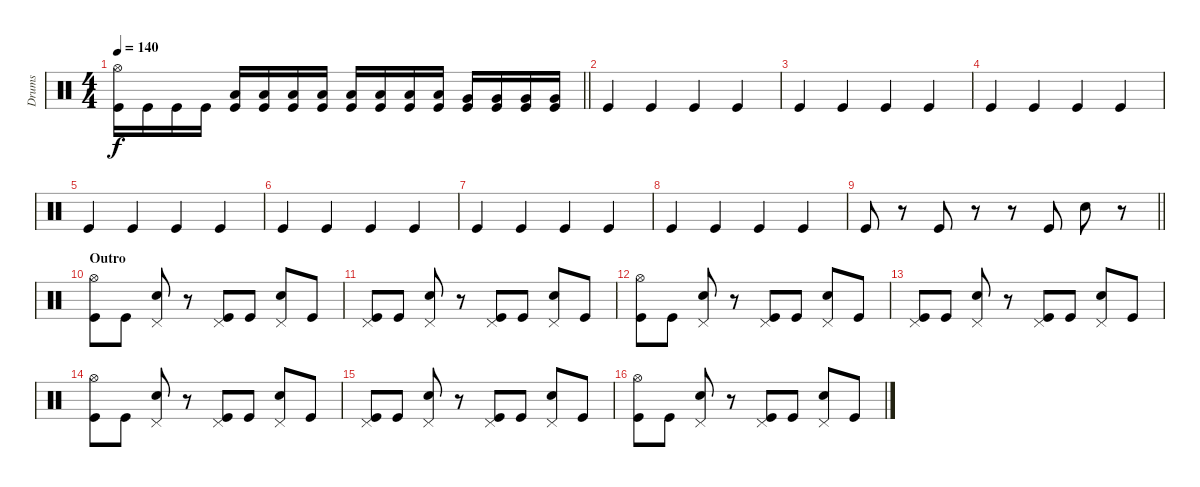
\track ("Drums" "Drums") {instrument percussion}
\staff {score}
\articulation defaults
\ts (4 4)
\tempo 140
\clef neutral
\barLineRight lightlight
\ks c
("Hi-Hat (open)" "Kick (hit)").16{dy f} "Kick (hit)".16 "Kick (hit)".16 "Kick (hit)".16 ("Low Tom (hit)" "Kick (hit)").16 ("Low Tom (hit)" "Kick (hit)").16 ("Low Tom (hit)" "Kick (hit)").16 ("Low Tom (hit)" "Kick (hit)").16 ("Low Floor Tom (hit)" "Kick (hit)").16 ("Low Floor Tom (hit)" "Kick (hit)").16 ("Low Floor Tom (hit)" "Kick (hit)").16 ("Low Floor Tom (hit)" "Kick (hit)").16 ("Very Low Tom (hit)" "Kick (hit)").16 ("Very Low Tom (hit)" "Kick (hit)").16 ("Very Low Tom (hit)" "Kick (hit)").16 ("Very Low Tom (hit)" "Kick (hit)").16 |
\section ("" "")
"Kick (hit)".4 "Kick (hit)".4 "Kick (hit)".4 "Kick (hit)".4 |
"Kick (hit)".4 "Kick (hit)".4 "Kick (hit)".4 "Kick (hit)".4 |
"Kick (hit)".4 "Kick (hit)".4 "Kick (hit)".4 "Kick (hit)".4 |
"Kick (hit)".4 "Kick (hit)".4 "Kick (hit)".4 "Kick (hit)".4 |
"Kick (hit)".4 "Kick (hit)".4 "Kick (hit)".4 "Kick (hit)".4 |
"Kick (hit)".4 "Kick (hit)".4 "Kick (hit)".4 "Kick (hit)".4 |
"Kick (hit)".4 "Kick (hit)".4 "Kick (hit)".4 "Kick (hit)".4 |
\barLineRight lightlight "Kick (hit)".8
r.8 "Kick (hit)".8 r.8 r.8 "Kick (hit)".8 "Electric Snare (hit)".8 r.8 |
\section ("" "Outro")
("Hi-Hat (open)" "Kick (hit)").8 "Kick (hit)".8 ("Pedal Hi-Hat (hit)" "Electric Snare (hit)").8 r.8 ("Pedal Hi-Hat (hit)" "Kick (hit)").8 "Kick (hit)".8 ("Pedal Hi-Hat (hit)" "Electric Snare (hit)").8 "Kick (hit)".8 |
("Pedal Hi-Hat (hit)" "Kick (hit)").8 "Kick (hit)".8 ("Pedal Hi-Hat (hit)" "Electric Snare (hit)").8 r.8 ("Pedal Hi-Hat (hit)" "Kick (hit)").8 "Kick (hit)".8 ("Pedal Hi-Hat (hit)" "Electric Snare (hit)").8 "Kick (hit)".8 |
("Hi-Hat (open)" "Kick (hit)").8 "Kick (hit)".8 ("Pedal Hi-Hat (hit)" "Electric Snare (hit)").8 r.8 ("Pedal Hi-Hat (hit)" "Kick (hit)").8 "Kick (hit)".8 ("Pedal Hi-Hat (hit)" "Electric Snare (hit)").8 "Kick (hit)".8 |
("Pedal Hi-Hat (hit)" "Kick (hit)").8 "Kick (hit)".8 ("Pedal Hi-Hat (hit)" "Electric Snare (hit)").8 r.8 ("Pedal Hi-Hat (hit)" "Kick (hit)").8 "Kick (hit)".8 ("Pedal Hi-Hat (hit)" "Electric Snare (hit)").8 "Kick (hit)".8 |
("Hi-Hat (open)" "Kick (hit)").8 "Kick (hit)".8 ("Pedal Hi-Hat (hit)" "Electric Snare (hit)").8 r.8 ("Pedal Hi-Hat (hit)" "Kick (hit)").8 "Kick (hit)".8 ("Pedal Hi-Hat (hit)" "Electric Snare (hit)").8 "Kick (hit)".8 |
("Pedal Hi-Hat (hit)" "Kick (hit)").8 "Kick (hit)".8 ("Pedal Hi-Hat (hit)" "Electric Snare (hit)").8 r.8 ("Pedal Hi-Hat (hit)" "Kick (hit)").8 "Kick (hit)".8 ("Pedal Hi-Hat (hit)" "Electric Snare (hit)").8 "Kick (hit)".8 |
("Hi-Hat (open)" "Kick (hit)").8 "Kick (hit)".8 ("Pedal Hi-Hat (hit)" "Electric Snare (hit)").8 r.8 ("Pedal Hi-Hat (hit)" "Kick (hit)").8 "Kick (hit)".8 ("Pedal Hi-Hat (hit)" "Electric Snare (hit)").8 "Kick (hit)".8
